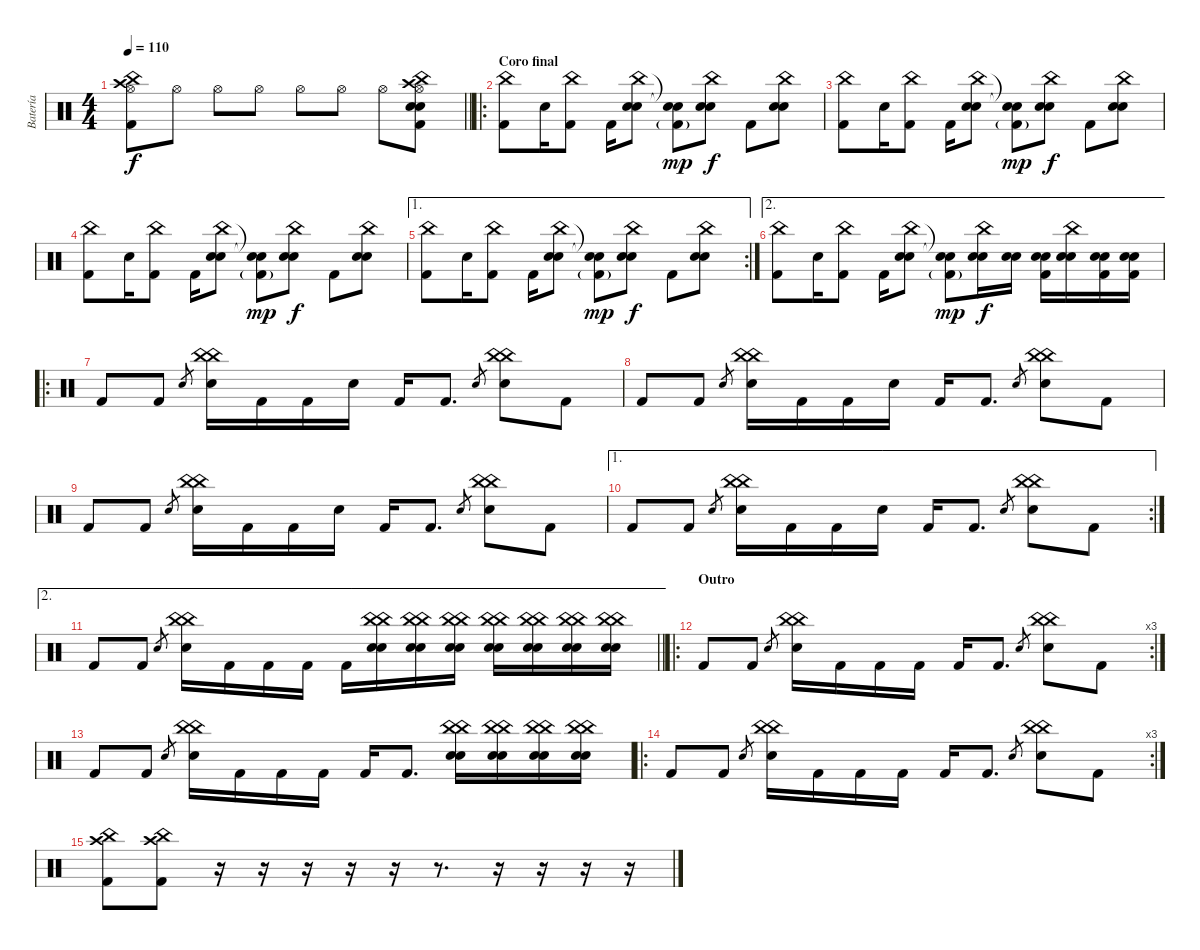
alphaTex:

\track ("Batería" "Batería") {instrument percussion}
\staff {score}
\articulation defaults
\ts (4 4)
\tempo 110
\clef neutral
\barLineRight lightlight
\ks c
("Crash high (hit)" "China (hit)" "Kick (hit) 2" "Hi-Hat (open)").8{dy f} "Hi-Hat (open)".8 "Hi-Hat (open)".8 "Hi-Hat (open)".8 "Hi-Hat (open)".8 "Hi-Hat (open)".8 "Hi-Hat (open)".8 ("Crash high (hit)" "China (hit)" "Snare (hit) 2" "Hi-Hat (open)" "Electric Snare (hit)" "Kick (hit) 2").8 |
\ro
\section ("" "Coro final")
("China (hit)" "Kick (hit) 2").8 "Electric Snare (hit)".16 ("China (hit)" "Kick (hit) 2").8 "Kick (hit) 2".16 ("China (hit)" "Snare (hit) 2" "Electric Snare (hit)").8 ("Snare (hit)"{t} "Snare (hit)"{t} "Kick (hit) 2"{g}).8{dy mp} ("China (hit)" "Snare (hit) 2" "Electric Snare (hit)").8{dy f} "Kick (hit) 2".8 ("China (hit)" "Snare (hit) 2" "Electric Snare (hit)").8 |
("China (hit)" "Kick (hit) 2").8 "Electric Snare (hit)".16 ("China (hit)" "Kick (hit) 2").8 "Kick (hit) 2".16 ("China (hit)" "Snare (hit) 2" "Electric Snare (hit)").8 ("Snare (hit)"{t} "Snare (hit)"{t} "Kick (hit) 2"{g}).8{dy mp} ("China (hit)" "Snare (hit) 2" "Electric Snare (hit)").8{dy f} "Kick (hit) 2".8 ("China (hit)" "Snare (hit) 2" "Electric Snare (hit)").8 |
("China (hit)" "Kick (hit) 2").8 "Electric Snare (hit)".16 ("China (hit)" "Kick (hit) 2").8 "Kick (hit) 2".16 ("China (hit)" "Snare (hit) 2" "Electric Snare (hit)").8 ("Snare (hit)"{t} "Snare (hit)"{t} "Kick (hit) 2"{g}).8{dy mp} ("China (hit)" "Snare (hit) 2" "Electric Snare (hit)").8{dy f} "Kick (hit) 2".8 ("China (hit)" "Snare (hit) 2" "Electric Snare (hit)").8 |
\ae 1
\rc 2
("China (hit)" "Kick (hit) 2").8 "Electric Snare (hit)".16 ("China (hit)" "Kick (hit) 2").8 "Kick (hit) 2".16 ("China (hit)" "Snare (hit) 2" "Electric Snare (hit)").8 ("Snare (hit)"{t} "Snare (hit)"{t} "Kick (hit) 2"{g}).8{dy mp} ("China (hit)" "Snare (hit) 2" "Electric Snare (hit)").8{dy f} "Kick (hit) 2".8 ("China (hit)" "Snare (hit) 2" "Electric Snare (hit)").8 |
\ae 2
("China (hit)" "Kick (hit) 2").8 "Electric Snare (hit)".16 ("China (hit)" "Kick (hit) 2").8 "Kick (hit) 2".16 ("China (hit)" "Snare (hit) 2" "Electric Snare (hit)").8 ("Snare (hit)"{t} "Snare (hit)"{t} "Kick (hit) 2"{g}).8{dy mp} ("China (hit)" "Snare (hit) 2" "Electric Snare (hit)").16{dy f} ("Snare (hit) 2" "Electric Snare (hit)").16 ("Snare (hit) 2" "Electric Snare (hit)" "Kick (hit) 2").16 ("China (hit)" "Snare (hit) 2" "Electric Snare (hit)").16 ("Snare (hit) 2" "Electric Snare (hit)" "Kick (hit) 2").16 ("Snare (hit) 2" "Electric Snare (hit)" "Kick (hit) 2").16 |
\ro "Kick (hit) 2".8 "Kick (hit) 2".8 "Snare (hit) 2".8{gr}
("China (hit)" "China (hit)" "Electric Snare (hit)").16 "Kick (hit) 2".16 "Kick (hit) 2".16 "Snare (hit)"{x}.16 "Kick (hit) 2"{x}.16 "Kick (hit) 2".8{d} "Snare (hit) 2".8{gr} ("China (hit)" "China (hit)" "Electric Snare (hit)").8 "Kick (hit) 2".8 |
"Kick (hit) 2".8 "Kick (hit) 2".8 "Snare (hit) 2".8{gr} ("China (hit)" "China (hit)" "Electric Snare (hit)").16 "Kick (hit) 2".16 "Kick (hit) 2".16 "Snare (hit)"{x}.16 "Kick (hit) 2"{x}.16 "Kick (hit) 2".8{d} "Snare (hit) 2".8{gr} ("China (hit)" "China (hit)" "Electric Snare (hit)").8 "Kick (hit) 2".8 |
"Kick (hit) 2".8 "Kick (hit) 2".8 "Snare (hit) 2".8{gr} ("China (hit)" "China (hit)" "Electric Snare (hit)").16 "Kick (hit) 2".16 "Kick (hit) 2".16 "Snare (hit)"{x}.16 "Kick (hit) 2"{x}.16 "Kick (hit) 2".8{d} "Snare (hit) 2".8{gr} ("China (hit)" "China (hit)" "Electric Snare (hit)").8 "Kick (hit) 2".8 |
\ae 1
\rc 2 "Kick (hit) 2".8 "Kick (hit) 2".8 "Snare (hit) 2".8{gr}
("China (hit)" "China (hit)" "Electric Snare (hit)").16 "Kick (hit) 2".16 "Kick (hit) 2".16 "Snare (hit)"{x}.16 "Kick (hit) 2"{x}.16 "Kick (hit) 2".8{d} "Snare (hit) 2".8{gr} ("China (hit)" "China (hit)" "Electric Snare (hit)").8 "Kick (hit) 2".8 |
\ae 2
\barLineRight lightlight "Kick (hit) 2".8 "Kick (hit) 2".8 "Snare (hit) 2".8{gr}
("China (hit)" "China (hit)" "Electric Snare (hit)").16 "Kick (hit) 2".16 "Kick (hit) 2"{x}.16 "Kick (hit) 2"{x}.16 "Kick (hit) 2".16 ("China (hit)" "China (hit)" "Electric Snare (hit)" "Snare (hit) 2").16 ("China (hit)" "China (hit)" "Electric Snare (hit)" "Snare (hit) 2").16 ("China (hit)" "China (hit)" "Electric Snare (hit)" "Snare (hit) 2").16 ("China (hit)" "China (hit)" "Electric Snare (hit)" "Snare (hit) 2").16 ("China (hit)" "China (hit)" "Electric Snare (hit)" "Snare (hit) 2").16 ("China (hit)" "China (hit)" "Electric Snare (hit)" "Snare (hit) 2").16 ("China (hit)" "China (hit)" "Electric Snare (hit)" "Snare (hit) 2").16 |
\ro
\rc 3
\section ("" "Outro")
"Kick (hit) 2".8 "Kick (hit) 2".8 "Snare (hit) 2".8{gr} ("China (hit)" "China (hit)" "Electric Snare (hit)").16 "Kick (hit) 2".16 "Kick (hit) 2".16 "Kick (hit) 2".16 "Kick (hit) 2".16 "Kick (hit) 2".8{d} "Snare (hit) 2".8{gr} ("China (hit)" "China (hit)" "Electric Snare (hit)").8 "Kick (hit) 2".8 |
"Kick (hit) 2".8 "Kick (hit) 2".8 "Snare (hit) 2".8{gr} ("China (hit)" "China (hit)" "Electric Snare (hit)").16 "Kick (hit) 2".16 "Kick (hit) 2".16 "Kick (hit) 2".16 "Kick (hit) 2".16 "Kick (hit) 2".8{d} ("China (hit)" "China (hit)" "Electric Snare (hit)" "Snare (hit) 2").16 ("China (hit)" "China (hit)" "Electric Snare (hit)" "Snare (hit) 2").16 ("China (hit)" "China (hit)" "Electric Snare (hit)" "Snare (hit) 2").16 ("China (hit)" "China (hit)" "Electric Snare (hit)" "Snare (hit) 2").16 |
\ro
\rc 3 "Kick (hit) 2".8 "Kick (hit) 2".8 "Snare (hit) 2".8{gr}
("China (hit)" "China (hit)" "Electric Snare (hit)").16 "Kick (hit) 2".16 "Kick (hit) 2".16 "Kick (hit) 2".16 "Kick (hit) 2".16 "Kick (hit) 2".8{d} "Snare (hit) 2".8{gr} ("China (hit)" "China (hit)" "Electric Snare (hit)").8 "Kick (hit) 2".8 |
("Crash high (hit)" "China (hit)" "Kick (hit) 2").8 ("Crash high (hit)" "China (hit)" "Kick (hit) 2").8 r.16 r.16 r.16 r.16 r.16 r.8{d} r.16 r.16 r.16 r.16
